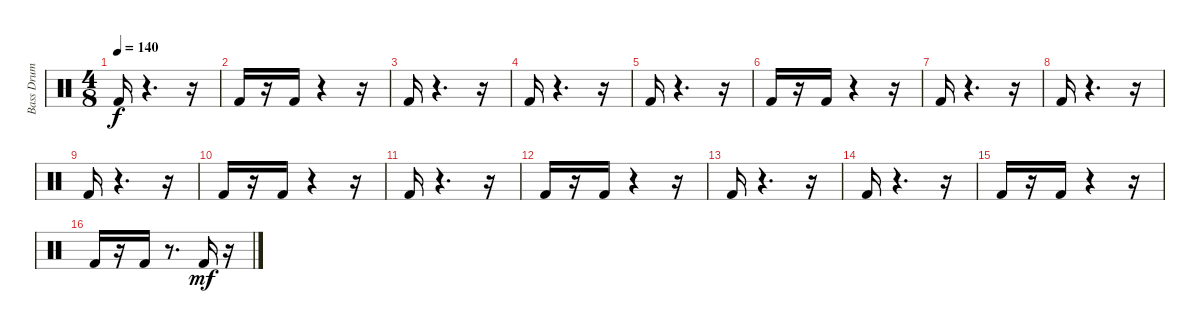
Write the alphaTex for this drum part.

\track ("Bass Drum" "Bass Drum") {instrument percussion}
\staff {score}
\articulation defaults
\ts (4 8)
\tempo 140
\clef neutral
\ks c "Kick (hit) 2".16{dy f}
r.4{d} r.16 |
"Kick (hit) 2".16 r.16 "Kick (hit) 2".16 r.4 r.16 |
"Kick (hit) 2".16 r.4{d} r.16 |
"Kick (hit) 2".16 r.4{d} r.16 |
"Kick (hit) 2".16 r.4{d} r.16 |
"Kick (hit) 2".16 r.16 "Kick (hit) 2".16 r.4 r.16 |
"Kick (hit) 2".16 r.4{d} r.16 |
"Kick (hit) 2".16 r.4{d} r.16 |
"Kick (hit) 2".16 r.4{d} r.16 |
"Kick (hit) 2".16 r.16 "Kick (hit) 2".16 r.4 r.16 |
"Kick (hit) 2".16 r.4{d} r.16 |
"Kick (hit) 2".16 r.16 "Kick (hit) 2".16 r.4 r.16 |
"Kick (hit) 2".16 r.4{d} r.16 |
"Kick (hit) 2".16 r.4{d} r.16 |
"Kick (hit) 2".16 r.16 "Kick (hit) 2".16 r.4 r.16 |
"Kick (hit) 2".16 r.16 "Kick (hit) 2".16 r.8{d} "Kick (hit) 2".16{dy mf} r.16
